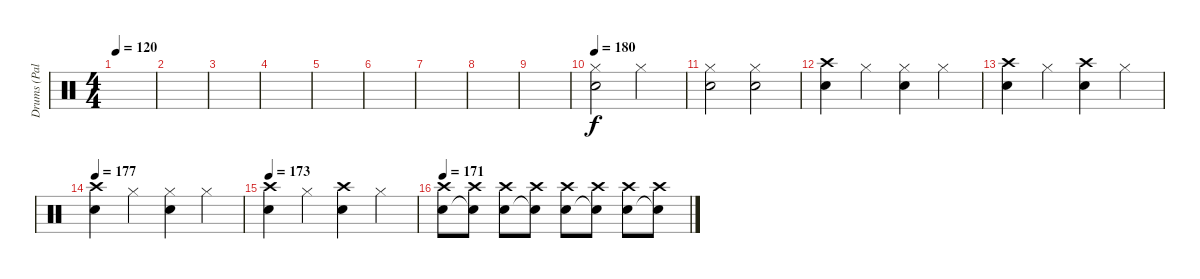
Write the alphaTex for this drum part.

\track ("Drums (Palmer)" "Drums (Pal") {instrument percussion}
\staff {score}
\articulation defaults
\ts (4 4)
\tempo 120
\clef neutral
\ks c
|
|
|
|
|
|
|
|
|
\tempo 180
("Hi-Hat (closed)" "Snare (hit) 2").2 "Hi-Hat (closed)".2 |
("Hi-Hat (closed)" "Snare (hit) 2").2 ("Hi-Hat (closed)" "Snare (hit) 2").2 |
("Crash high (hit)" "Snare (hit) 2").4 "Hi-Hat (closed)".4 ("Hi-Hat (closed)" "Snare (hit) 2").4 "Hi-Hat (closed)".4 |
("Crash high (hit)" "Snare (hit) 2").4 "Hi-Hat (closed)".4 ("Crash high (hit)" "Snare (hit) 2").4 "Hi-Hat (closed)".4 |
\tempo 177
("Crash high (hit)" "Snare (hit) 2").4 "Hi-Hat (closed)".4 ("Hi-Hat (closed)" "Snare (hit) 2").4 "Hi-Hat (closed)".4 |
\tempo 173
("Crash high (hit)" "Snare (hit) 2").4 "Hi-Hat (closed)".4 ("Crash high (hit)" "Snare (hit) 2").4 "Hi-Hat (closed)".4 |
\tempo 171
("Crash high (hit)" "Snare (hit) 2").8 ("Crash high (hit)" "Snare (hit)"{t}).8 ("Crash high (hit)" "Snare (hit) 2").8 ("Crash high (hit)" "Snare (hit) 2"{t}).8 ("Crash high (hit)" "Snare (hit) 2").8 ("Crash high (hit)" "Snare (hit)"{t}).8 ("Crash high (hit)" "Snare (hit) 2").8 ("Crash high (hit)" "Snare (hit)"{t}).8
